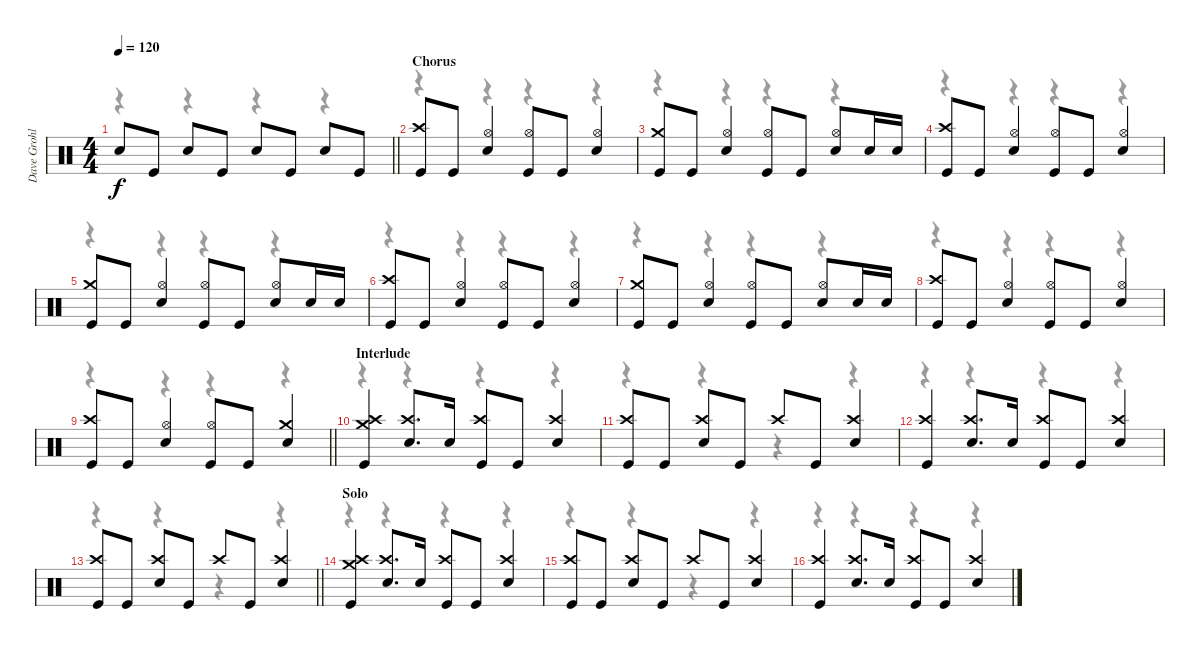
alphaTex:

\track ("Dave Grohl" "Dave Grohl") {instrument percussion}
\staff {score}
\articulation defaults
\voice
\ts (4 4)
\tempo 120
\clef neutral
\barLineRight lightlight
\ks c "Snare (hit) 2".8{dy f} "Kick (hit)".8 "Snare (hit) 2".8 "Kick (hit)".8 "Snare (hit) 2".8 "Kick (hit)".8 "Snare (hit) 2".8 "Kick (hit)".8
|
\section ("" "Chorus")
("Crash high (hit)" "Kick (hit)").8 "Kick (hit)".8 ("Hi-Hat (open)" "Snare (hit) 2").4 ("Hi-Hat (open)" "Kick (hit)").8 "Kick (hit)".8 ("Hi-Hat (open)" "Snare (hit) 2").4 |
("Crash medium (hit)" "Kick (hit)").8 "Kick (hit)".8 ("Hi-Hat (open)" "Snare (hit) 2").4 ("Hi-Hat (open)" "Kick (hit)").8 "Kick (hit)".8 ("Hi-Hat (open)" "Snare (hit) 2").8 "Snare (hit) 2".16 "Snare (hit) 2".16 |
("Crash high (hit)" "Kick (hit)").8 "Kick (hit)".8 ("Hi-Hat (open)" "Snare (hit) 2").4 ("Hi-Hat (open)" "Kick (hit)").8 "Kick (hit)".8 ("Hi-Hat (open)" "Snare (hit) 2").4 |
("Crash medium (hit)" "Kick (hit)").8 "Kick (hit)".8 ("Hi-Hat (open)" "Snare (hit) 2").4 ("Hi-Hat (open)" "Kick (hit)").8 "Kick (hit)".8 ("Hi-Hat (open)" "Snare (hit) 2").8 "Snare (hit) 2".16 "Snare (hit) 2".16 |
("Crash high (hit)" "Kick (hit)").8 "Kick (hit)".8 ("Hi-Hat (open)" "Snare (hit) 2").4 ("Hi-Hat (open)" "Kick (hit)").8 "Kick (hit)".8 ("Hi-Hat (open)" "Snare (hit) 2").4 |
("Crash medium (hit)" "Kick (hit)").8 "Kick (hit)".8 ("Hi-Hat (open)" "Snare (hit) 2").4 ("Hi-Hat (open)" "Kick (hit)").8 "Kick (hit)".8 ("Hi-Hat (open)" "Snare (hit) 2").8 "Snare (hit) 2".16 "Snare (hit) 2".16 |
("Crash high (hit)" "Kick (hit)").8 "Kick (hit)".8 ("Hi-Hat (open)" "Snare (hit) 2").4 ("Hi-Hat (open)" "Kick (hit)").8 "Kick (hit)".8 ("Hi-Hat (open)" "Snare (hit) 2").4 |
\barLineRight lightlight
("Crash high (hit)" "Kick (hit)").8 "Kick (hit)".8 ("Hi-Hat (open)" "Snare (hit) 2").4 ("Hi-Hat (open)" "Kick (hit)").8 "Kick (hit)".8 ("Crash medium (hit)" "Snare (hit) 2").4 |
\section ("" "Interlude")
("Crash medium (hit)" "Crash high (hit)" "Kick (hit)").4 ("Crash high (hit)" "Snare (hit) 2").8{d} "Snare (hit) 2".16 ("Crash high (hit)" "Kick (hit)").8 "Kick (hit)".8 ("Crash high (hit)" "Snare (hit) 2").4 |
("Crash high (hit)" "Kick (hit)").8 "Kick (hit)".8 ("Crash high (hit)" "Snare (hit) 2").8 "Kick (hit)".8 "Crash high (hit)".8 "Kick (hit)".8 ("Crash high (hit)" "Snare (hit) 2").4 |
("Crash high (hit)" "Kick (hit)").4 ("Crash high (hit)" "Snare (hit) 2").8{d} "Snare (hit) 2".16 ("Crash high (hit)" "Kick (hit)").8 "Kick (hit)".8 ("Crash high (hit)" "Snare (hit) 2").4 |
\barLineRight lightlight
("Crash high (hit)" "Kick (hit)").8 "Kick (hit)".8 ("Crash high (hit)" "Snare (hit) 2").8 "Kick (hit)".8 "Crash high (hit)".8 "Kick (hit)".8 ("Crash high (hit)" "Snare (hit) 2").4 |
\section ("" "Solo")
("Crash medium (hit)" "Crash high (hit)" "Kick (hit)").4 ("Crash high (hit)" "Snare (hit) 2").8{d} "Snare (hit) 2".16 ("Crash high (hit)" "Kick (hit)").8 "Kick (hit)".8 ("Crash high (hit)" "Snare (hit) 2").4 |
("Crash high (hit)" "Kick (hit)").8 "Kick (hit)".8 ("Crash high (hit)" "Snare (hit) 2").8 "Kick (hit)".8 "Crash high (hit)".8 "Kick (hit)".8 ("Crash high (hit)" "Snare (hit) 2").4 |
("Crash high (hit)" "Kick (hit)").4 ("Crash high (hit)" "Snare (hit) 2").8{d} "Snare (hit) 2".16 ("Crash high (hit)" "Kick (hit)").8 "Kick (hit)".8 ("Crash high (hit)" "Snare (hit) 2").4
\voice
\clef neutral
\ottava regular
\simile none
\barLineRight lightlight
\ks c
r.4{dy f} r.4 r.4 r.4 |
r.4 r.4 r.4 r.4 |
r.4 r.4 r.4 r.4 |
r.4 r.4 r.4 r.4 |
r.4 r.4 r.4 r.4 |
r.4 r.4 r.4 r.4 |
r.4 r.4 r.4 r.4 |
r.4 r.4 r.4 r.4 |
\barLineRight lightlight
r.4 r.4 r.4 r.4 |
r.4 r.4 r.4 r.4 |
r.4 r.4 r.4 r.4 |
r.4 r.4 r.4 r.4 |
\barLineRight lightlight
r.4 r.4 r.4 r.4 |
r.4 r.4 r.4 r.4 |
r.4 r.4 r.4 r.4 |
r.4 r.4 r.4 r.4
